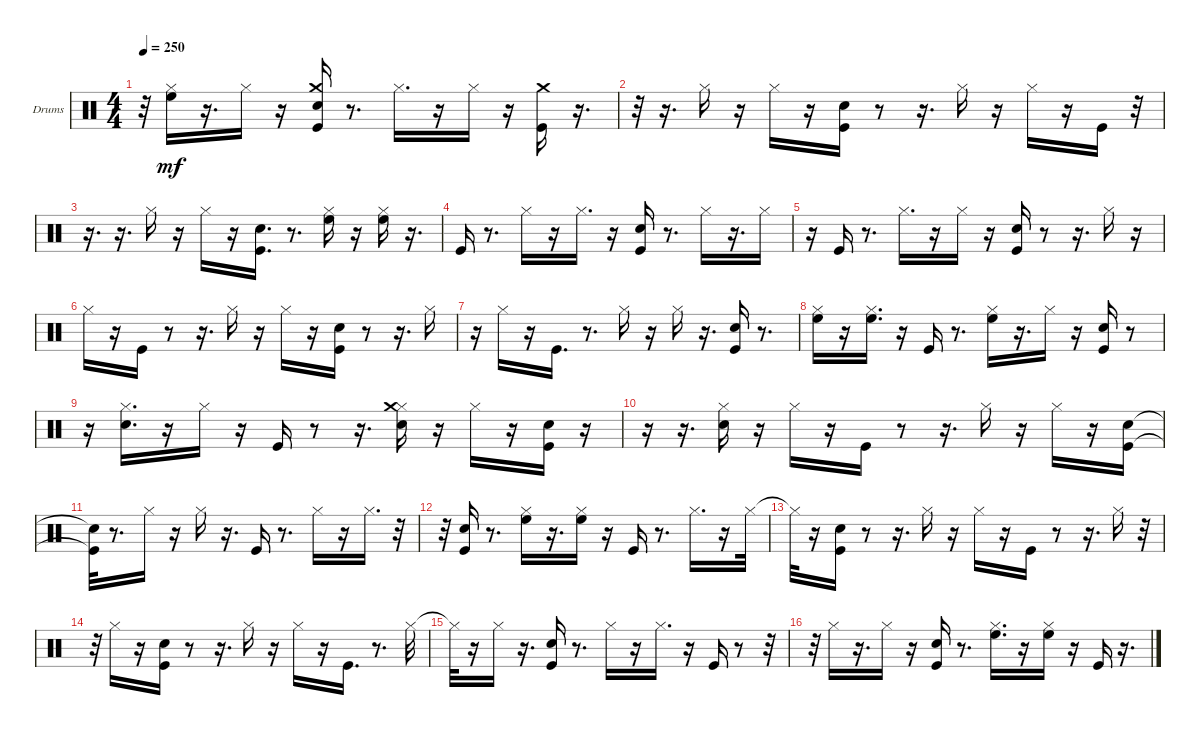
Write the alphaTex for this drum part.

\bracketExtendMode groupsimilarinstruments
\firstSystemTrackNameOrientation horizontal
\otherSystemsTrackNameOrientation horizontal
\track ("Drums" "Drums") {instrument percussion}
\staff {score}
\articulation defaults
\ts (4 4)
\tempo 250
\clef neutral
\ks c
r.32{dy mf} ("High Floor Tom (hit)" "Hi-Hat (closed)").16 r.16{d} "Hi-Hat (closed)".16 r.16 ("Kick (hit)" "Crash medium (hit)" "Snare (hit) 2").16 r.8{d} "Hi-Hat (closed)".16{d} r.16 "Hi-Hat (closed)".16 r.16 ("Kick (hit)" "Crash medium (hit)").16 r.16{d} |
r.32 r.16{d} "Hi-Hat (closed)".16 r.16 "Hi-Hat (closed)".16 r.16 ("Kick (hit)" "Snare (hit) 2").16 r.8 r.16{d} "Hi-Hat (closed)".16 r.16 "Hi-Hat (closed)".16 r.16 "Kick (hit)".16 r.32 |
r.16{d} r.16{d} "Hi-Hat (closed)".16 r.16 "Hi-Hat (closed)".16 r.16 ("Kick (hit)" "Snare (hit) 2").16{d} r.8{d} ("High Floor Tom (hit)" "Hi-Hat (closed)").16 r.16 ("High Floor Tom (hit)" "Hi-Hat (closed)").16 r.16{d} |
"Kick (hit)".16 r.8{d} "Hi-Hat (closed)".16 r.16 "Hi-Hat (closed)".16{d} r.16 ("Kick (hit)" "Snare (hit) 2").16 r.8{d} "Hi-Hat (closed)".16 r.16{d} "Hi-Hat (closed)".16 |
r.16 "Kick (hit)".16 r.8{d} "Hi-Hat (closed)".16{d} r.16 "Hi-Hat (closed)".16 r.16 ("Kick (hit)" "Snare (hit) 2").16 r.8 r.16{d} "Hi-Hat (closed)".16 r.16 |
"Hi-Hat (closed)".16 r.16 "Kick (hit)".16 r.8 r.16{d} "Hi-Hat (closed)".16 r.16 "Hi-Hat (closed)".16 r.16 ("Kick (hit)" "Snare (hit) 2").16 r.8 r.16{d} "Hi-Hat (closed)".16 |
r.16 "Hi-Hat (closed)".16 r.16 "Kick (hit)".16{d} r.8{d} "Hi-Hat (closed)".16 r.16 "Hi-Hat (closed)".16 r.16{d} ("Kick (hit)" "Snare (hit) 2").16 r.8{d} |
("High Floor Tom (hit)" "Hi-Hat (closed)").16 r.16 ("High Floor Tom (hit)" "Hi-Hat (closed)").16{d} r.16 "Kick (hit)".16 r.8{d} ("High Floor Tom (hit)" "Hi-Hat (closed)").16 r.16{d} "Hi-Hat (closed)".16 r.16 ("Kick (hit)" "Snare (hit) 2").16 r.8 |
r.16 ("Hi-Hat (closed)" "Snare (hit) 2").16{d} r.16 "Hi-Hat (closed)".16 r.16 "Kick (hit)".16 r.8 r.16{d} ("Hi-Hat (closed)" "Snare (hit) 2" "Crash medium (hit)").16 r.16 "Hi-Hat (closed)".16 r.16 ("Kick (hit)" "Snare (hit) 2").16 r.16 |
r.16 r.16{d} ("Hi-Hat (closed)" "Snare (hit) 2").16 r.16 "Hi-Hat (closed)".16 r.16 "Kick (hit)".16 r.8 r.16{d} "Hi-Hat (closed)".16 r.16 "Hi-Hat (closed)".16 r.16 ("Kick (hit)" "Snare (hit) 2").16 |
("Kick (hit)"{t} "Snare (hit) 2"{t}).32 r.8{d} "Hi-Hat (closed)".16 r.16 "Hi-Hat (closed)".16 r.16{d} "Kick (hit)".16 r.8{d} "Hi-Hat (closed)".16 r.16 "Hi-Hat (closed)".16{d} r.32 |
r.32 ("Kick (hit)" "Snare (hit) 2").16 r.8{d} ("High Floor Tom (hit)" "Hi-Hat (closed)").16 r.16{d} ("High Floor Tom (hit)" "Hi-Hat (closed)").16 r.16 "Kick (hit)".16 r.8{d} "Hi-Hat (closed)".16{d} r.16 "Hi-Hat (closed)".32 |
"Hi-Hat (closed)"{t}.32 r.16 ("Kick (hit)" "Snare (hit) 2").16 r.8 r.16{d} "Hi-Hat (closed)".16 r.16 "Hi-Hat (closed)".16 r.16 "Kick (hit)".16 r.8 r.16{d} "Hi-Hat (closed)".16 r.32 |
r.32 "Hi-Hat (closed)".16 r.16 ("Kick (hit)" "Snare (hit) 2").16 r.8 r.16{d} "Hi-Hat (closed)".16 r.16 "Hi-Hat (closed)".16 r.16 "Kick (hit)".16{d} r.8{d} "Hi-Hat (closed)".32 |
"Hi-Hat (closed)"{t}.32 r.16 "Hi-Hat (closed)".16 r.16{d} ("Kick (hit)" "Snare (hit) 2").16 r.8{d} "Hi-Hat (closed)".16 r.16 "Hi-Hat (closed)".16{d} r.16 "Kick (hit)".16 r.8 r.32 |
r.32 "Hi-Hat (closed)".16 r.16{d} "Hi-Hat (closed)".16 r.16 ("Kick (hit)" "Snare (hit) 2").16 r.8{d} ("High Floor Tom (hit)" "Hi-Hat (closed)").16{d} r.16 ("High Floor Tom (hit)" "Hi-Hat (closed)").16 r.16 "Kick (hit)".16 r.16{d}
